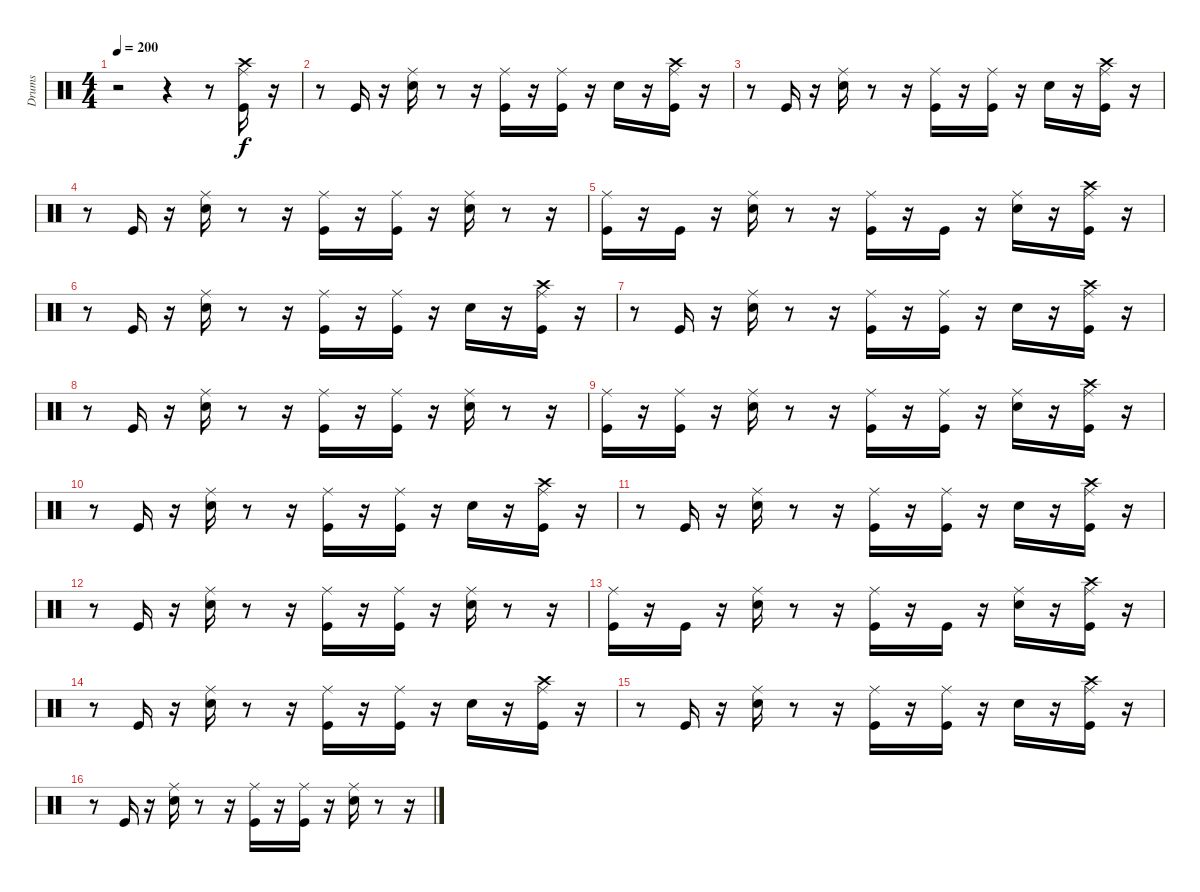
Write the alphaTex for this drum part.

\track ("Drums" "Drums") {instrument percussion}
\staff {score}
\articulation defaults
\ts (4 4)
\tempo 200
\clef neutral
\ks c
r.2{dy f} r.4 r.8 ("Kick (hit)" "Crash high (hit)" "Ride (middle)").16 r.16 |
r.8 "Kick (hit)".16 r.16 ("Ride (middle)" "Snare (hit) 2").16 r.8 r.16 ("Kick (hit)" "Ride (middle)").16 r.16 ("Ride (middle)" "Kick (hit)").16 r.16 "Snare (hit) 2".16 r.16 ("Ride (middle)" "Crash high (hit)" "Kick (hit)").16 r.16 |
r.8 "Kick (hit)".16 r.16 ("Ride (middle)" "Snare (hit) 2").16 r.8 r.16 ("Ride (middle)" "Kick (hit)").16 r.16 ("Kick (hit)" "Ride (middle)").16 r.16 "Snare (hit) 2".16 r.16 ("Ride (middle)" "Crash high (hit)" "Kick (hit)").16 r.16 |
r.8 "Kick (hit)".16 r.16 ("Ride (middle)" "Snare (hit) 2").16 r.8 r.16 ("Kick (hit)" "Ride (middle)").16 r.16 ("Ride (middle)" "Kick (hit)").16 r.16 ("Ride (middle)" "Snare (hit) 2").16 r.8 r.16 |
("Kick (hit)" "Ride (middle)").16 r.16 "Kick (hit)".16 r.16 ("Snare (hit) 2" "Ride (middle)").16 r.8 r.16 ("Ride (middle)" "Kick (hit)").16 r.16 "Kick (hit)".16 r.16 ("Snare (hit) 2" "Ride (middle)").16 r.16 ("Ride (middle)" "Crash high (hit)" "Kick (hit)").16 r.16 |
r.8 "Kick (hit)".16 r.16 ("Ride (middle)" "Snare (hit) 2").16 r.8 r.16 ("Ride (middle)" "Kick (hit)").16 r.16 ("Kick (hit)" "Ride (middle)").16 r.16 "Snare (hit) 2".16 r.16 ("Ride (middle)" "Kick (hit)" "Crash high (hit)").16 r.16 |
r.8 "Kick (hit)".16 r.16 ("Ride (middle)" "Snare (hit) 2").16 r.8 r.16 ("Ride (middle)" "Kick (hit)").16 r.16 ("Ride (middle)" "Kick (hit)").16 r.16 "Snare (hit) 2".16 r.16 ("Kick (hit)" "Crash high (hit)" "Ride (middle)").16 r.16 |
r.8 "Kick (hit)".16 r.16 ("Ride (middle)" "Snare (hit) 2").16 r.8 r.16 ("Ride (middle)" "Kick (hit)").16 r.16 ("Kick (hit)" "Ride (middle)").16 r.16 ("Ride (middle)" "Snare (hit) 2").16 r.8 r.16 |
("Ride (middle)" "Kick (hit)").16 r.16 ("Ride (middle)" "Kick (hit)").16 r.16 ("Ride (middle)" "Snare (hit) 2").16 r.8 r.16 ("Ride (middle)" "Kick (hit)").16 r.16 ("Kick (hit)" "Ride (middle)").16 r.16 ("Ride (middle)" "Snare (hit) 2").16 r.16 ("Ride (middle)" "Crash high (hit)" "Kick (hit)").16 r.16 |
r.8 "Kick (hit)".16 r.16 ("Snare (hit) 2" "Ride (middle)").16 r.8 r.16 ("Kick (hit)" "Ride (middle)").16 r.16 ("Ride (middle)" "Kick (hit)").16 r.16 "Snare (hit) 2".16 r.16 ("Ride (middle)" "Kick (hit)" "Crash high (hit)").16 r.16 |
r.8 "Kick (hit)".16 r.16 ("Ride (middle)" "Snare (hit) 2").16 r.8 r.16 ("Ride (middle)" "Kick (hit)").16 r.16 ("Ride (middle)" "Kick (hit)").16 r.16 "Snare (hit) 2".16 r.16 ("Ride (middle)" "Kick (hit)" "Crash high (hit)").16 r.16 |
r.8 "Kick (hit)".16 r.16 ("Ride (middle)" "Snare (hit) 2").16 r.8 r.16 ("Ride (middle)" "Kick (hit)").16 r.16 ("Ride (middle)" "Kick (hit)").16 r.16 ("Ride (middle)" "Snare (hit) 2").16 r.8 r.16 |
("Ride (middle)" "Kick (hit)").16 r.16 "Kick (hit)".16 r.16 ("Snare (hit) 2" "Ride (middle)").16 r.8 r.16 ("Ride (middle)" "Kick (hit)").16 r.16 "Kick (hit)".16 r.16 ("Snare (hit) 2" "Ride (middle)").16 r.16 ("Ride (middle)" "Crash high (hit)" "Kick (hit)").16 r.16 |
r.8 "Kick (hit)".16 r.16 ("Snare (hit) 2" "Ride (middle)").16 r.8 r.16 ("Ride (middle)" "Kick (hit)").16 r.16 ("Kick (hit)" "Ride (middle)").16 r.16 "Snare (hit) 2".16 r.16 ("Crash high (hit)" "Ride (middle)" "Kick (hit)").16 r.16 |
r.8 "Kick (hit)".16 r.16 ("Snare (hit) 2" "Ride (middle)").16 r.8 r.16 ("Kick (hit)" "Ride (middle)").16 r.16 ("Ride (middle)" "Kick (hit)").16 r.16 "Snare (hit) 2".16 r.16 ("Kick (hit)" "Crash high (hit)" "Ride (middle)").16 r.16 |
r.8 "Kick (hit)".16 r.16 ("Ride (middle)" "Snare (hit) 2").16 r.8 r.16 ("Ride (middle)" "Kick (hit)").16 r.16 ("Ride (middle)" "Kick (hit)").16 r.16 ("Snare (hit) 2" "Ride (middle)").16 r.8 r.16
